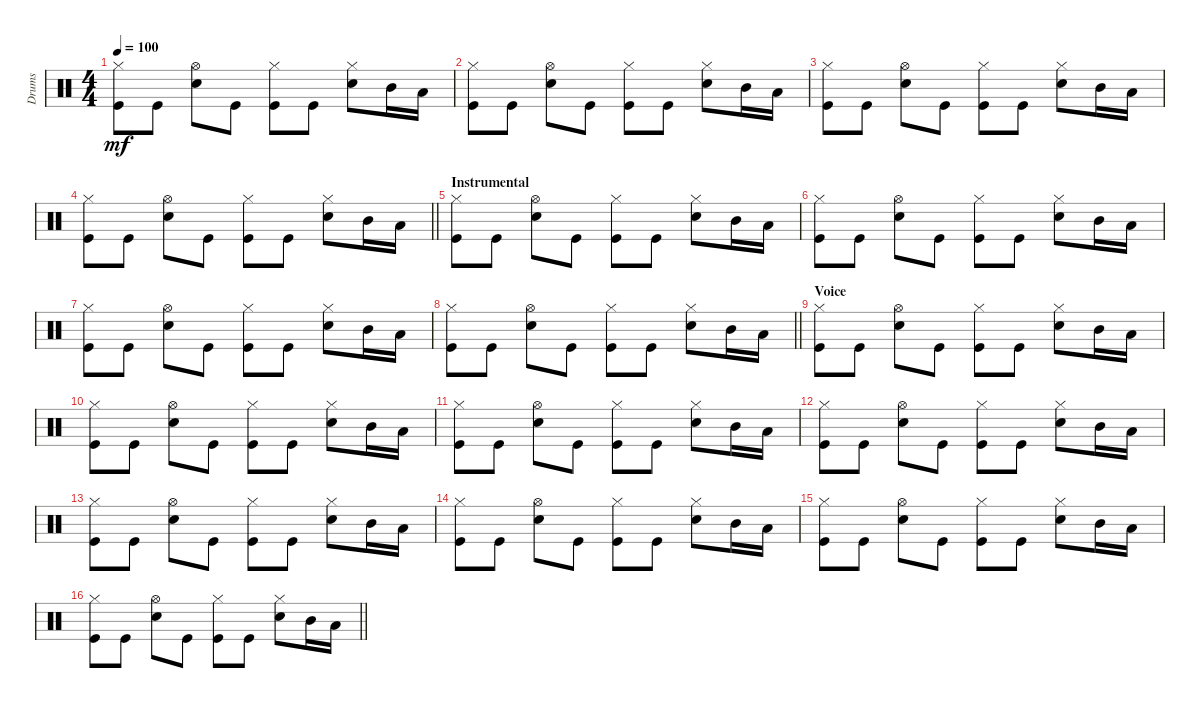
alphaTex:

\track ("Drums" "Drums") {instrument percussion}
\staff {score}
\articulation defaults
\ts (4 4)
\tempo 100
\clef neutral
\ks c
("Kick (hit)" "Hi-Hat (closed)").8{dy mf} "Kick (hit)".8 ("Electric Snare (hit)" "Hi-Hat (open)").8 "Kick (hit)".8 ("Kick (hit)" "Hi-Hat (closed)").8 "Kick (hit)".8 ("Electric Snare (hit)" "Hi-Hat (closed)").8 "Mid Tom (hit)".16 "Low Tom (hit)".16 |
("Kick (hit)" "Hi-Hat (closed)").8 "Kick (hit)".8 ("Electric Snare (hit)" "Hi-Hat (open)").8 "Kick (hit)".8 ("Kick (hit)" "Hi-Hat (closed)").8 "Kick (hit)".8 ("Electric Snare (hit)" "Hi-Hat (closed)").8 "Mid Tom (hit)".16 "Low Tom (hit)".16 |
("Kick (hit)" "Hi-Hat (closed)").8 "Kick (hit)".8 ("Electric Snare (hit)" "Hi-Hat (open)").8 "Kick (hit)".8 ("Kick (hit)" "Hi-Hat (closed)").8 "Kick (hit)".8 ("Electric Snare (hit)" "Hi-Hat (closed)").8 "Mid Tom (hit)".16 "Low Tom (hit)".16 |
\barLineRight lightlight
("Kick (hit)" "Hi-Hat (closed)").8 "Kick (hit)".8 ("Electric Snare (hit)" "Hi-Hat (open)").8 "Kick (hit)".8 ("Kick (hit)" "Hi-Hat (closed)").8 "Kick (hit)".8 ("Electric Snare (hit)" "Hi-Hat (closed)").8 "Mid Tom (hit)".16 "Low Tom (hit)".16 |
\section ("" "Instrumental")
("Kick (hit)" "Hi-Hat (closed)").8 "Kick (hit)".8 ("Electric Snare (hit)" "Hi-Hat (open)").8 "Kick (hit)".8 ("Kick (hit)" "Hi-Hat (closed)").8 "Kick (hit)".8 ("Electric Snare (hit)" "Hi-Hat (closed)").8 "Mid Tom (hit)".16 "Low Tom (hit)".16 |
("Kick (hit)" "Hi-Hat (closed)").8 "Kick (hit)".8 ("Electric Snare (hit)" "Hi-Hat (open)").8 "Kick (hit)".8 ("Kick (hit)" "Hi-Hat (closed)").8 "Kick (hit)".8 ("Electric Snare (hit)" "Hi-Hat (closed)").8 "Mid Tom (hit)".16 "Low Tom (hit)".16 |
("Kick (hit)" "Hi-Hat (closed)").8 "Kick (hit)".8 ("Electric Snare (hit)" "Hi-Hat (open)").8 "Kick (hit)".8 ("Kick (hit)" "Hi-Hat (closed)").8 "Kick (hit)".8 ("Electric Snare (hit)" "Hi-Hat (closed)").8 "Mid Tom (hit)".16 "Low Tom (hit)".16 |
\barLineRight lightlight
("Kick (hit)" "Hi-Hat (closed)").8 "Kick (hit)".8 ("Electric Snare (hit)" "Hi-Hat (open)").8 "Kick (hit)".8 ("Kick (hit)" "Hi-Hat (closed)").8 "Kick (hit)".8 ("Electric Snare (hit)" "Hi-Hat (closed)").8 "Mid Tom (hit)".16 "Low Tom (hit)".16 |
\section ("" "Voice")
("Kick (hit)" "Hi-Hat (closed)").8 "Kick (hit)".8 ("Electric Snare (hit)" "Hi-Hat (open)").8 "Kick (hit)".8 ("Kick (hit)" "Hi-Hat (closed)").8 "Kick (hit)".8 ("Electric Snare (hit)" "Hi-Hat (closed)").8 "Mid Tom (hit)".16 "Low Tom (hit)".16 |
("Kick (hit)" "Hi-Hat (closed)").8 "Kick (hit)".8 ("Electric Snare (hit)" "Hi-Hat (open)").8 "Kick (hit)".8 ("Kick (hit)" "Hi-Hat (closed)").8 "Kick (hit)".8 ("Electric Snare (hit)" "Hi-Hat (closed)").8 "Mid Tom (hit)".16 "Low Tom (hit)".16 |
("Kick (hit)" "Hi-Hat (closed)").8 "Kick (hit)".8 ("Electric Snare (hit)" "Hi-Hat (open)").8 "Kick (hit)".8 ("Kick (hit)" "Hi-Hat (closed)").8 "Kick (hit)".8 ("Electric Snare (hit)" "Hi-Hat (closed)").8 "Mid Tom (hit)".16 "Low Tom (hit)".16 |
("Kick (hit)" "Hi-Hat (closed)").8 "Kick (hit)".8 ("Electric Snare (hit)" "Hi-Hat (open)").8 "Kick (hit)".8 ("Kick (hit)" "Hi-Hat (closed)").8 "Kick (hit)".8 ("Electric Snare (hit)" "Hi-Hat (closed)").8 "Mid Tom (hit)".16 "Low Tom (hit)".16 |
("Kick (hit)" "Hi-Hat (closed)").8 "Kick (hit)".8 ("Electric Snare (hit)" "Hi-Hat (open)").8 "Kick (hit)".8 ("Kick (hit)" "Hi-Hat (closed)").8 "Kick (hit)".8 ("Electric Snare (hit)" "Hi-Hat (closed)").8 "Mid Tom (hit)".16 "Low Tom (hit)".16 |
("Kick (hit)" "Hi-Hat (closed)").8 "Kick (hit)".8 ("Electric Snare (hit)" "Hi-Hat (open)").8 "Kick (hit)".8 ("Kick (hit)" "Hi-Hat (closed)").8 "Kick (hit)".8 ("Electric Snare (hit)" "Hi-Hat (closed)").8 "Mid Tom (hit)".16 "Low Tom (hit)".16 |
("Kick (hit)" "Hi-Hat (closed)").8 "Kick (hit)".8 ("Electric Snare (hit)" "Hi-Hat (open)").8 "Kick (hit)".8 ("Kick (hit)" "Hi-Hat (closed)").8 "Kick (hit)".8 ("Electric Snare (hit)" "Hi-Hat (closed)").8 "Mid Tom (hit)".16 "Low Tom (hit)".16 |
\barLineRight lightlight
("Kick (hit)" "Hi-Hat (closed)").8 "Kick (hit)".8 ("Electric Snare (hit)" "Hi-Hat (open)").8 "Kick (hit)".8 ("Kick (hit)" "Hi-Hat (closed)").8 "Kick (hit)".8 ("Electric Snare (hit)" "Hi-Hat (closed)").8 "Mid Tom (hit)".16 "Low Tom (hit)".16
